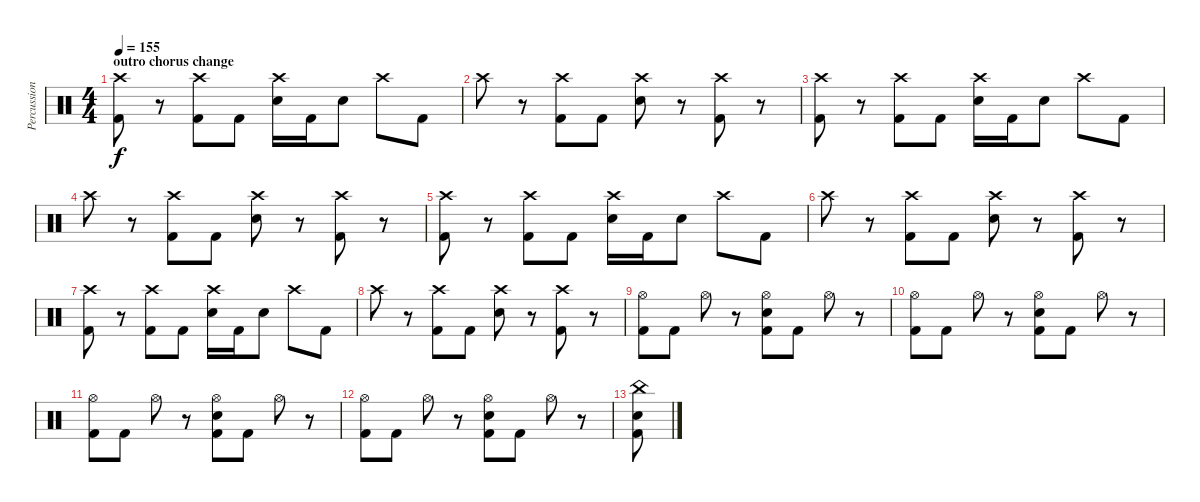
\track ("Percussion" "Percussion") {instrument percussion}
\staff {score}
\articulation defaults
\ts (4 4)
\section ("" "outro chorus change")
\tempo 155
\clef neutral
\ks c
("Crash high (hit)" "Kick (hit) 2").8{dy f} r.8 ("Crash high (hit)" "Kick (hit) 2").8 "Kick (hit) 2".8 ("Crash high (hit)" "Snare (hit) 2").16 "Kick (hit) 2".16 "Snare (hit) 2".8 "Crash high (hit)".8 "Kick (hit) 2".8 |
"Crash high (hit)".8 r.8 ("Crash high (hit)" "Kick (hit) 2").8 "Kick (hit) 2".8 ("Crash high (hit)" "Snare (hit) 2").8 r.8 ("Crash high (hit)" "Kick (hit) 2").8 r.8 |
("Crash high (hit)" "Kick (hit) 2").8 r.8 ("Crash high (hit)" "Kick (hit) 2").8 "Kick (hit) 2".8 ("Crash high (hit)" "Snare (hit) 2").16 "Kick (hit) 2".16 "Snare (hit) 2".8 "Crash high (hit)".8 "Kick (hit) 2".8 |
"Crash high (hit)".8 r.8 ("Crash high (hit)" "Kick (hit) 2").8 "Kick (hit) 2".8 ("Crash high (hit)" "Snare (hit) 2").8 r.8 ("Crash high (hit)" "Kick (hit) 2").8 r.8 |
("Crash high (hit)" "Kick (hit) 2").8 r.8 ("Crash high (hit)" "Kick (hit) 2").8 "Kick (hit) 2".8 ("Crash high (hit)" "Snare (hit) 2").16 "Kick (hit) 2".16 "Snare (hit) 2".8 "Crash high (hit)".8 "Kick (hit) 2".8 |
"Crash high (hit)".8 r.8 ("Crash high (hit)" "Kick (hit) 2").8 "Kick (hit) 2".8 ("Crash high (hit)" "Snare (hit) 2").8 r.8 ("Crash high (hit)" "Kick (hit) 2").8 r.8 |
("Crash high (hit)" "Kick (hit) 2").8 r.8 ("Crash high (hit)" "Kick (hit) 2").8 "Kick (hit) 2".8 ("Crash high (hit)" "Snare (hit) 2").16 "Kick (hit) 2".16 "Snare (hit) 2".8 "Crash high (hit)".8 "Kick (hit) 2".8 |
"Crash high (hit)".8 r.8 ("Crash high (hit)" "Kick (hit) 2").8 "Kick (hit) 2".8 ("Crash high (hit)" "Snare (hit) 2").8 r.8 ("Crash high (hit)" "Kick (hit) 2").8 r.8 |
("Hi-Hat (open)" "Kick (hit) 2").8 "Kick (hit) 2".8 "Hi-Hat (open)".8 r.8 ("Hi-Hat (open)" "Snare (hit) 2" "Kick (hit) 2").8 "Kick (hit) 2".8 "Hi-Hat (open)".8 r.8 |
("Hi-Hat (open)" "Kick (hit) 2").8 "Kick (hit) 2".8 "Hi-Hat (open)".8 r.8 ("Hi-Hat (open)" "Snare (hit) 2" "Kick (hit) 2").8 "Kick (hit) 2".8 "Hi-Hat (open)".8 r.8 |
("Hi-Hat (open)" "Kick (hit) 2").8 "Kick (hit) 2".8 "Hi-Hat (open)".8 r.8 ("Hi-Hat (open)" "Snare (hit) 2" "Kick (hit) 2").8 "Kick (hit) 2".8 "Hi-Hat (open)".8 r.8 |
("Hi-Hat (open)" "Kick (hit) 2").8 "Kick (hit) 2".8 "Hi-Hat (open)".8 r.8 ("Hi-Hat (open)" "Snare (hit) 2" "Kick (hit) 2").8 "Kick (hit) 2".8 "Hi-Hat (open)".8 r.8 |
("China (hit)" "Snare (hit) 2" "Kick (hit) 2").8
